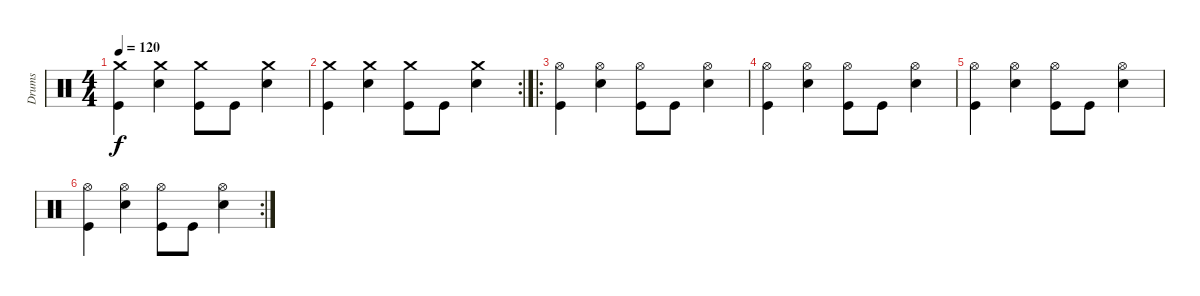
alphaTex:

\track ("Drums" "Drums") {instrument percussion}
\staff {score}
\articulation defaults
\ts (4 4)
\tempo 120
\clef neutral
\ks c
("Crash medium (hit)" "Kick (hit)").4{dy f} ("Crash medium (hit)" "Snare (hit) 2").4 ("Crash medium (hit)" "Kick (hit)").8 "Kick (hit)".8 ("Crash medium (hit)" "Snare (hit) 2").4 |
\rc 2
("Crash medium (hit)" "Kick (hit)").4 ("Crash medium (hit)" "Snare (hit) 2").4 ("Crash medium (hit)" "Kick (hit)").8 "Kick (hit)".8 ("Crash medium (hit)" "Snare (hit) 2").4 |
\ro
("Hi-Hat (open)" "Kick (hit)").4 ("Hi-Hat (open)" "Snare (hit) 2").4 ("Hi-Hat (open)" "Kick (hit)").8 "Kick (hit)".8 ("Hi-Hat (open)" "Snare (hit) 2").4 |
("Hi-Hat (open)" "Kick (hit)").4 ("Hi-Hat (open)" "Snare (hit) 2").4 ("Hi-Hat (open)" "Kick (hit)").8 "Kick (hit)".8 ("Hi-Hat (open)" "Snare (hit) 2").4 |
("Hi-Hat (open)" "Kick (hit)").4 ("Hi-Hat (open)" "Snare (hit) 2").4 ("Hi-Hat (open)" "Kick (hit)").8 "Kick (hit)".8 ("Hi-Hat (open)" "Snare (hit) 2").4 |
\rc 2
("Hi-Hat (open)" "Kick (hit)").4 ("Hi-Hat (open)" "Snare (hit) 2").4 ("Hi-Hat (open)" "Kick (hit)").8 "Kick (hit)".8 ("Hi-Hat (open)" "Snare (hit) 2").4
